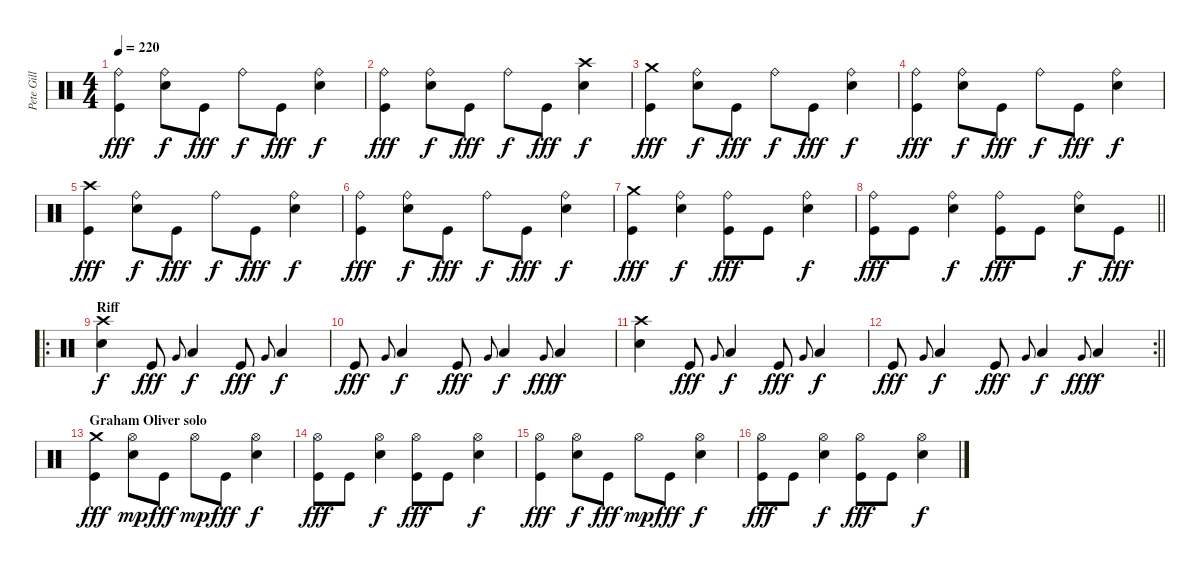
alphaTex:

\track ("Pete Gill" "Pete Gill") {instrument percussion}
\staff {score}
\articulation defaults
\ts (4 4)
\tempo 220
\clef neutral
\ks c
("Ride (bell)" "Kick (hit)").4{dy fff} ("Ride (bell)" "Electric Snare (hit)").8{dy f} "Kick (hit)".8{dy fff} "Ride (bell)".8{dy f} "Kick (hit)".8{dy fff} ("Ride (bell)" "Electric Snare (hit)").4{dy f} |
("Ride (bell)" "Kick (hit)").4{dy fff} ("Ride (bell)" "Electric Snare (hit)").8{dy f} "Kick (hit)".8{dy fff} "Ride (bell)".8{dy f} "Kick (hit)".8{dy fff} ("Crash high (hit)" "Electric Snare (hit)").4{dy f} |
("Crash medium (hit)" "Kick (hit)").4{dy fff} ("Ride (bell)" "Electric Snare (hit)").8{dy f} "Kick (hit)".8{dy fff} "Ride (bell)".8{dy f} "Kick (hit)".8{dy fff} ("Ride (bell)" "Electric Snare (hit)").4{dy f} |
("Ride (bell)" "Kick (hit)").4{dy fff} ("Ride (bell)" "Electric Snare (hit)").8{dy f} "Kick (hit)".8{dy fff} "Ride (bell)".8{dy f} "Kick (hit)".8{dy fff} ("Ride (bell)" "Electric Snare (hit)").4{dy f} |
("Crash high (hit)" "Kick (hit)").4{dy fff} ("Ride (bell)" "Electric Snare (hit)").8{dy f} "Kick (hit)".8{dy fff} "Ride (bell)".8{dy f} "Kick (hit)".8{dy fff} ("Ride (bell)" "Electric Snare (hit)").4{dy f} |
("Ride (bell)" "Kick (hit)").4{dy fff} ("Ride (bell)" "Electric Snare (hit)").8{dy f} "Kick (hit)".8{dy fff} "Ride (bell)".8{dy f} "Kick (hit)".8{dy fff} ("Ride (bell)" "Electric Snare (hit)").4{dy f} |
("Crash medium (hit)" "Kick (hit)").4{dy fff} ("Ride (bell)" "Electric Snare (hit)").4{dy f} ("Ride (bell)" "Kick (hit)").8{dy fff} "Kick (hit)".8 ("Ride (bell)" "Electric Snare (hit)").4{dy f} |
\barLineRight lightlight
("Ride (bell)" "Kick (hit)").8{dy fff} "Kick (hit)".8 ("Ride (bell)" "Electric Snare (hit)").4{dy f} ("Ride (bell)" "Kick (hit)").8{dy fff} "Kick (hit)".8 ("Ride (bell)" "Electric Snare (hit)").8{dy f} "Kick (hit)".8{dy fff} |
\ro
\section ("" "Riff")
("Crash high (hit)" "Electric Snare (hit)").4{dy f} "Kick (hit)".8{dy fff} "Very Low Tom (hit)".8{gr onbeat} "Low Tom (hit)".4{dy f} "Kick (hit)".8{dy fff} "Very Low Tom (hit)".8{gr onbeat} "Low Tom (hit)".4{dy f} |
"Kick (hit)".8{dy fff} "Very Low Tom (hit)".8{gr onbeat} "Low Tom (hit)".4{dy f} "Kick (hit)".8{dy fff} "Very Low Tom (hit)".8{gr onbeat} "Low Tom (hit)".4{dy f} "Very Low Tom (hit)".8{gr onbeat dy fff} "Low Tom (hit)".4{dy f} |
("Crash high (hit)" "Electric Snare (hit)").4 "Kick (hit)".8{dy fff} "Very Low Tom (hit)".8{gr onbeat} "Low Tom (hit)".4{dy f} "Kick (hit)".8{dy fff} "Very Low Tom (hit)".8{gr onbeat} "Low Tom (hit)".4{dy f} |
\rc 2
\barLineRight lightlight "Kick (hit)".8{dy fff} "Very Low Tom (hit)".8{gr onbeat} "Low Tom (hit)".4{dy f} "Kick (hit)".8{dy fff} "Very Low Tom (hit)".8{gr onbeat} "Low Tom (hit)".4{dy f} "Very Low Tom (hit)".8{gr onbeat dy fff} "Low Tom (hit)".4{dy f}
|
\section ("" "Graham Oliver solo")
("Crash medium (hit)" "Kick (hit)").4{dy fff} ("Hi-Hat (open)" "Electric Snare (hit)").8{dy mp} "Kick (hit)".8{dy fff} "Hi-Hat (open)".8{dy mp} "Kick (hit)".8{dy fff} ("Hi-Hat (open)" "Electric Snare (hit)").4{dy f} |
("Hi-Hat (open)" "Kick (hit)").8{dy fff} "Kick (hit)".8 ("Hi-Hat (open)" "Electric Snare (hit)").4{dy f} ("Hi-Hat (open)" "Kick (hit)").8{dy fff} "Kick (hit)".8 ("Hi-Hat (open)" "Electric Snare (hit)").4{dy f} |
("Hi-Hat (open)" "Kick (hit)").4{dy fff} ("Hi-Hat (open)" "Electric Snare (hit)").8{dy f} "Kick (hit)".8{dy fff} "Hi-Hat (open)".8{dy mp} "Kick (hit)".8{dy fff} ("Hi-Hat (open)" "Electric Snare (hit)").4{dy f} |
("Hi-Hat (open)" "Kick (hit)").8{dy fff} "Kick (hit)".8 ("Hi-Hat (open)" "Electric Snare (hit)").4{dy f} ("Hi-Hat (open)" "Kick (hit)").8{dy fff} "Kick (hit)".8 ("Hi-Hat (open)" "Electric Snare (hit)").4{dy f}
